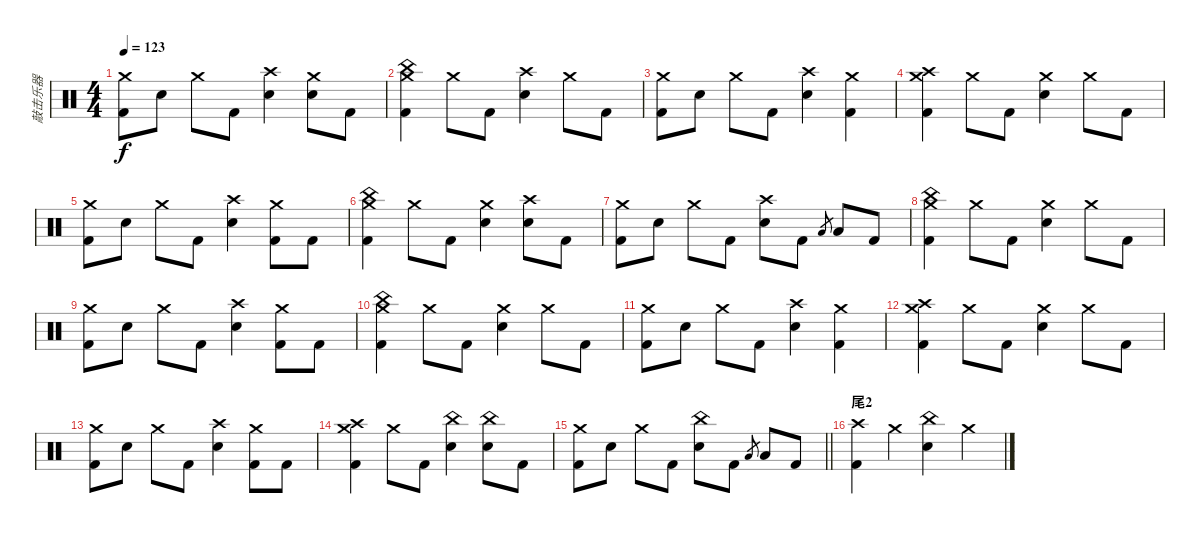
\track ("敲击乐器" "敲击乐器") {instrument percussion}
\staff {score}
\articulation defaults
\ts (4 4)
\tempo 123
\clef neutral
\ks c
("Crash medium (hit)" "Kick (hit) 2").8{dy f} "Electric Snare (hit)".8 "Crash medium (hit)".8 "Kick (hit) 2".8 ("Crash high (hit)" "Electric Snare (hit)").4 ("Crash medium (hit)" "Electric Snare (hit)").8 "Kick (hit) 2".8 |
("China (hit)" "Crash medium (hit)" "Kick (hit) 2").4 "Crash medium (hit)".8 "Kick (hit) 2".8 ("Crash high (hit)" "Electric Snare (hit)").4 "Crash medium (hit)".8 "Kick (hit) 2".8 |
("Crash medium (hit)" "Kick (hit) 2").8 "Electric Snare (hit)".8 "Crash medium (hit)".8 "Kick (hit) 2".8 ("Crash high (hit)" "Electric Snare (hit)").4 ("Crash medium (hit)" "Kick (hit) 2").4 |
("Crash high (hit)" "Crash medium (hit)" "Kick (hit) 2").4 "Crash medium (hit)".8 "Kick (hit) 2".8 ("Crash medium (hit)" "Electric Snare (hit)").4 "Crash medium (hit)".8 "Kick (hit) 2".8 |
("Crash medium (hit)" "Kick (hit) 2").8 "Electric Snare (hit)".8 "Crash medium (hit)".8 "Kick (hit) 2".8 ("Crash high (hit)" "Electric Snare (hit)").4 ("Crash medium (hit)" "Kick (hit) 2").8 "Kick (hit) 2".8 |
("China (hit)" "Crash medium (hit)" "Kick (hit) 2").4 "Crash medium (hit)".8 "Kick (hit) 2".8 ("Crash medium (hit)" "Electric Snare (hit)").4 ("Crash high (hit)" "Electric Snare (hit)").8 "Kick (hit) 2".8 |
("Crash medium (hit)" "Kick (hit) 2").8 "Electric Snare (hit)".8 "Crash medium (hit)".8 "Kick (hit) 2".8 ("Crash high (hit)" "Electric Snare (hit)").8 "Kick (hit) 2".8 "Low Tom (hit)".8{gr} "Low Tom (hit)".8 "Kick (hit) 2".8 |
("China (hit)" "Crash medium (hit)" "Kick (hit) 2").4 "Crash medium (hit)".8 "Kick (hit) 2".8 ("Crash medium (hit)" "Electric Snare (hit)").4 "Crash medium (hit)".8 "Kick (hit) 2".8 |
("Crash medium (hit)" "Kick (hit) 2").8 "Electric Snare (hit)".8 "Crash medium (hit)".8 "Kick (hit) 2".8 ("Crash high (hit)" "Electric Snare (hit)").4 ("Crash medium (hit)" "Kick (hit) 2").8 "Kick (hit) 2".8 |
("China (hit)" "Crash medium (hit)" "Kick (hit) 2").4 "Crash medium (hit)".8 "Kick (hit) 2".8 ("Crash medium (hit)" "Electric Snare (hit)").4 "Crash medium (hit)".8 "Kick (hit) 2".8 |
("Crash medium (hit)" "Kick (hit) 2").8 "Electric Snare (hit)".8 "Crash medium (hit)".8 "Kick (hit) 2".8 ("Crash high (hit)" "Electric Snare (hit)").4 ("Crash medium (hit)" "Kick (hit) 2").4 |
("Crash high (hit)" "Crash medium (hit)" "Kick (hit) 2").4 "Crash medium (hit)".8 "Kick (hit) 2".8 ("Crash medium (hit)" "Electric Snare (hit)").4 "Crash medium (hit)".8 "Kick (hit) 2".8 |
("Crash medium (hit)" "Kick (hit) 2").8 "Electric Snare (hit)".8 "Crash medium (hit)".8 "Kick (hit) 2".8 ("Crash high (hit)" "Electric Snare (hit)").4 ("Crash medium (hit)" "Kick (hit) 2").8 "Kick (hit) 2".8 |
("Crash high (hit)" "Crash medium (hit)" "Kick (hit) 2").4 "Crash medium (hit)".8 "Kick (hit) 2".8 ("China (hit)" "Electric Snare (hit)").4 ("China (hit)" "Electric Snare (hit)").8 "Kick (hit) 2".8 |
\barLineRight lightlight
("Crash medium (hit)" "Kick (hit) 2").8 "Electric Snare (hit)".8 "Crash medium (hit)".8 "Kick (hit) 2".8 ("China (hit)" "Electric Snare (hit)").8 "Kick (hit) 2".8 "Low Tom (hit)".8{gr} "Low Tom (hit)".8 "Kick (hit) 2".8 |
\section ("" "尾2")
("Crash high (hit)" "Kick (hit) 2").4 "Crash medium (hit)".4 ("China (hit)" "Electric Snare (hit)").4 "Crash medium (hit)".4
